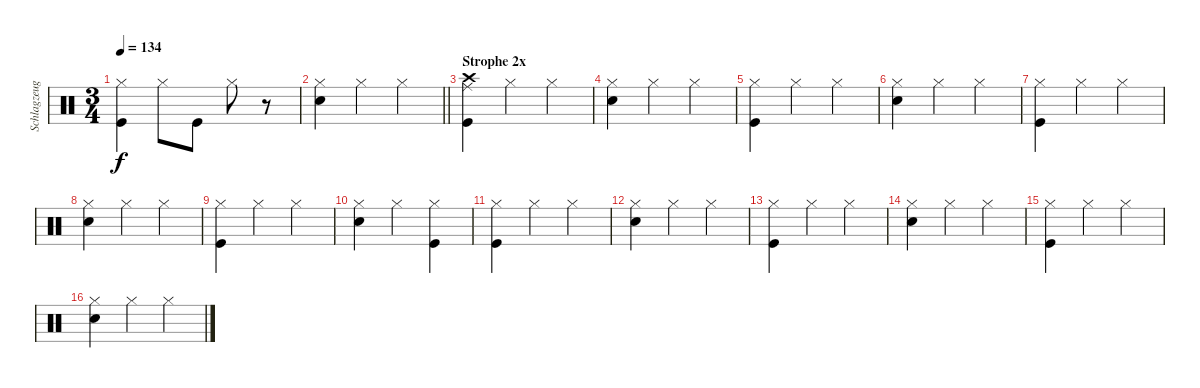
\track ("Schlagzeug" "Schlagzeug") {instrument percussion}
\staff {score}
\articulation defaults
\ts (3 4)
\tempo 134
\clef neutral
\ks c
("Hi-Hat (closed)" "Kick (hit)").4{dy f} "Hi-Hat (closed)".8 "Kick (hit)".8 "Hi-Hat (closed)".8 r.8 |
\barLineRight lightlight
("Hi-Hat (closed)" "Snare (hit) 2").4 "Hi-Hat (closed)".4 "Hi-Hat (closed)".4 |
\section ("" "Strophe 2x")
("Crash high (hit)" "Ride (middle)" "Kick (hit)").4 "Hi-Hat (closed)".4 "Hi-Hat (closed)".4 |
("Hi-Hat (closed)" "Snare (hit) 2").4 "Hi-Hat (closed)".4 "Hi-Hat (closed)".4 |
("Hi-Hat (closed)" "Kick (hit)").4 "Hi-Hat (closed)".4 "Hi-Hat (closed)".4 |
("Hi-Hat (closed)" "Snare (hit) 2").4 "Hi-Hat (closed)".4 "Hi-Hat (closed)".4 |
("Hi-Hat (closed)" "Kick (hit)").4 "Hi-Hat (closed)".4 "Hi-Hat (closed)".4 |
("Hi-Hat (closed)" "Snare (hit) 2").4 "Hi-Hat (closed)".4 "Hi-Hat (closed)".4 |
("Hi-Hat (closed)" "Kick (hit)").4 "Hi-Hat (closed)".4 "Hi-Hat (closed)".4 |
("Hi-Hat (closed)" "Snare (hit) 2").4 "Hi-Hat (closed)".4 ("Hi-Hat (closed)" "Kick (hit)").4 |
("Hi-Hat (closed)" "Kick (hit)").4 "Hi-Hat (closed)".4 "Hi-Hat (closed)".4 |
("Hi-Hat (closed)" "Snare (hit) 2").4 "Hi-Hat (closed)".4 "Hi-Hat (closed)".4 |
("Hi-Hat (closed)" "Kick (hit)").4 "Hi-Hat (closed)".4 "Hi-Hat (closed)".4 |
("Hi-Hat (closed)" "Snare (hit) 2").4 "Hi-Hat (closed)".4 "Hi-Hat (closed)".4 |
("Hi-Hat (closed)" "Kick (hit)").4 "Hi-Hat (closed)".4 "Hi-Hat (closed)".4 |
("Hi-Hat (closed)" "Snare (hit) 2").4 "Hi-Hat (closed)".4 "Hi-Hat (closed)".4
